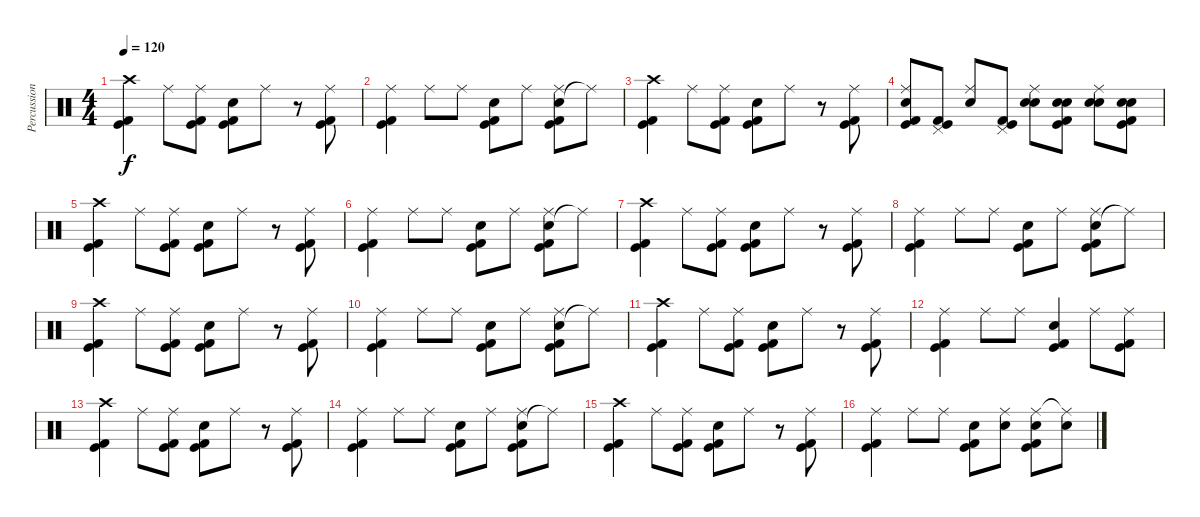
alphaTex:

\track ("Percussion" "Percussion") {instrument percussion}
\staff {score}
\articulation defaults
\ts (4 4)
\tempo 120
\clef neutral
\ks c
("Crash high (hit)" "Kick (hit)" "Kick (hit) 2").4{dy f} "Ride (middle)".8 ("Ride (middle)" "Kick (hit)" "Kick (hit) 2").8 ("Electric Snare (hit)" "Kick (hit)" "Kick (hit) 2").8 "Ride (middle)".8 r.8 ("Ride (middle)" "Kick (hit)" "Kick (hit) 2").8 |
("Ride (middle)" "Kick (hit)" "Kick (hit) 2").4 "Ride (middle)".8 "Ride (middle)".8 ("Electric Snare (hit)" "Kick (hit)" "Kick (hit) 2").8 "Ride (middle)".8 ("Electric Snare (hit)" "Ride (middle)" "Kick (hit)" "Kick (hit) 2").8 "Ride (middle)"{t}.8 |
("Crash high (hit)" "Kick (hit)" "Kick (hit) 2").4 "Ride (middle)".8 ("Ride (middle)" "Kick (hit)" "Kick (hit) 2").8 ("Electric Snare (hit)" "Kick (hit)" "Kick (hit) 2").8 "Ride (middle)".8 r.8 ("Ride (middle)" "Kick (hit)" "Kick (hit) 2").8 |
("Ride (middle)" "Snare (hit) 2" "Kick (hit)" "Kick (hit) 2").8 ("Pedal Hi-Hat (hit)" "Kick (hit)" "Kick (hit) 2").8 ("Ride (middle)" "Snare (hit) 2").8 ("Pedal Hi-Hat (hit)" "Kick (hit)" "Kick (hit) 2").8 ("Electric Snare (hit)" "Ride (middle)" "Snare (hit) 2").8 ("Electric Snare (hit)" "Snare (hit) 2" "Kick (hit)" "Kick (hit) 2").8 ("Electric Snare (hit)" "Ride (middle)" "Snare (hit) 2").8 ("Electric Snare (hit)" "Snare (hit) 2" "Kick (hit)" "Kick (hit) 2").8 |
("Crash high (hit)" "Kick (hit)" "Kick (hit) 2").4 "Ride (middle)".8 ("Ride (middle)" "Kick (hit)" "Kick (hit) 2").8 ("Electric Snare (hit)" "Kick (hit)" "Kick (hit) 2").8 "Ride (middle)".8 r.8 ("Ride (middle)" "Kick (hit)" "Kick (hit) 2").8 |
("Ride (middle)" "Kick (hit)" "Kick (hit) 2").4 "Ride (middle)".8 "Ride (middle)".8 ("Electric Snare (hit)" "Kick (hit)" "Kick (hit) 2").8 "Ride (middle)".8 ("Electric Snare (hit)" "Ride (middle)" "Kick (hit)" "Kick (hit) 2").8 "Ride (middle)"{t}.8 |
("Crash high (hit)" "Kick (hit)" "Kick (hit) 2").4 "Ride (middle)".8 ("Ride (middle)" "Kick (hit)" "Kick (hit) 2").8 ("Electric Snare (hit)" "Kick (hit)" "Kick (hit) 2").8 "Ride (middle)".8 r.8 ("Ride (middle)" "Kick (hit)" "Kick (hit) 2").8 |
("Ride (middle)" "Kick (hit)" "Kick (hit) 2").4 "Ride (middle)".8 "Ride (middle)".8 ("Electric Snare (hit)" "Kick (hit)" "Kick (hit) 2").8 "Ride (middle)".8 ("Electric Snare (hit)" "Ride (middle)" "Kick (hit)" "Kick (hit) 2").8 "Ride (middle)"{t}.8 |
("Crash high (hit)" "Kick (hit)" "Kick (hit) 2").4 "Ride (middle)".8 ("Ride (middle)" "Kick (hit)" "Kick (hit) 2").8 ("Electric Snare (hit)" "Kick (hit)" "Kick (hit) 2").8 "Ride (middle)".8 r.8 ("Ride (middle)" "Kick (hit)" "Kick (hit) 2").8 |
("Ride (middle)" "Kick (hit)" "Kick (hit) 2").4 "Ride (middle)".8 "Ride (middle)".8 ("Electric Snare (hit)" "Kick (hit)" "Kick (hit) 2").8 "Ride (middle)".8 ("Electric Snare (hit)" "Ride (middle)" "Kick (hit)" "Kick (hit) 2").8 "Ride (middle)"{t}.8 |
("Crash high (hit)" "Kick (hit)" "Kick (hit) 2").4 "Ride (middle)".8 ("Ride (middle)" "Kick (hit)" "Kick (hit) 2").8 ("Electric Snare (hit)" "Kick (hit)" "Kick (hit) 2").8 "Ride (middle)".8 r.8 ("Ride (middle)" "Kick (hit)" "Kick (hit) 2").8 |
("Ride (middle)" "Kick (hit)" "Kick (hit) 2").4 "Ride (middle)".8 "Ride (middle)".8 ("Electric Snare (hit)" "Kick (hit)" "Kick (hit) 2").4 "Ride (middle)".8 ("Ride (middle)" "Kick (hit)" "Kick (hit) 2").8 |
("Crash high (hit)" "Kick (hit)" "Kick (hit) 2").4 "Ride (middle)".8 ("Ride (middle)" "Kick (hit)" "Kick (hit) 2").8 ("Electric Snare (hit)" "Kick (hit)" "Kick (hit) 2").8 "Ride (middle)".8 r.8 ("Ride (middle)" "Kick (hit)" "Kick (hit) 2").8 |
("Ride (middle)" "Kick (hit)" "Kick (hit) 2").4 "Ride (middle)".8 "Ride (middle)".8 ("Electric Snare (hit)" "Kick (hit)" "Kick (hit) 2").8 "Ride (middle)".8 ("Electric Snare (hit)" "Ride (middle)" "Kick (hit)" "Kick (hit) 2").8 "Ride (middle)"{t}.8 |
("Crash high (hit)" "Kick (hit)" "Kick (hit) 2").4 "Ride (middle)".8 ("Ride (middle)" "Kick (hit)" "Kick (hit) 2").8 ("Electric Snare (hit)" "Kick (hit)" "Kick (hit) 2").8 "Ride (middle)".8 r.8 ("Ride (middle)" "Kick (hit)" "Kick (hit) 2").8 |
("Ride (middle)" "Kick (hit)" "Kick (hit) 2").4 "Ride (middle)".8 "Ride (middle)".8 ("Electric Snare (hit)" "Kick (hit)" "Kick (hit) 2").8 ("Electric Snare (hit)" "Ride (middle)").8 ("Electric Snare (hit)" "Ride (middle)" "Kick (hit)" "Kick (hit) 2").8 ("Electric Snare (hit)" "Ride (middle)"{t}).8
